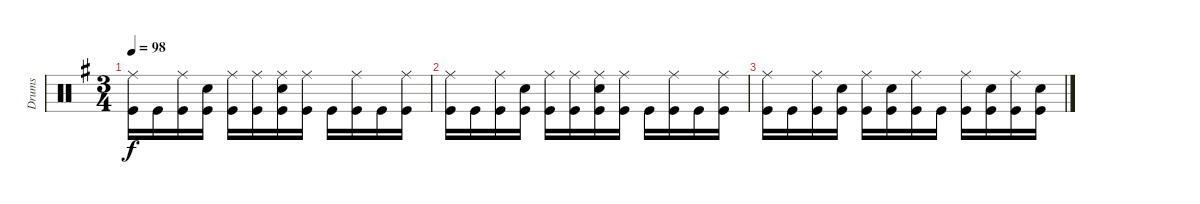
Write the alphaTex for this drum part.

\track ("Drums" "Drums") {instrument percussion}
\staff {score}
\articulation defaults
\ts (3 4)
\tempo 98
\clef neutral
\ks eminor
("Ride (middle)" "Kick (hit)").16{dy f} "Kick (hit)".16 ("Ride (middle)" "Kick (hit)").16 ("Electric Snare (hit)" "Kick (hit)").16 ("Ride (middle)" "Kick (hit)").16 ("Ride (middle)" "Kick (hit)").16 ("Ride (middle)" "Electric Snare (hit)" "Kick (hit)").16 ("Ride (middle)" "Kick (hit)").16 "Kick (hit)".16 ("Ride (middle)" "Kick (hit)").16 "Kick (hit)".16 ("Ride (middle)" "Kick (hit)").16 |
("Ride (middle)" "Kick (hit)").16 "Kick (hit)".16 ("Ride (middle)" "Kick (hit)").16 ("Electric Snare (hit)" "Kick (hit)").16 ("Ride (middle)" "Kick (hit)").16 ("Ride (middle)" "Kick (hit)").16 ("Ride (middle)" "Electric Snare (hit)" "Kick (hit)").16 ("Ride (middle)" "Kick (hit)").16 "Kick (hit)".16 ("Ride (middle)" "Kick (hit)").16 "Kick (hit)".16 ("Ride (middle)" "Kick (hit)").16 |
("Ride (middle)" "Kick (hit)").16 "Kick (hit)".16 ("Ride (middle)" "Kick (hit)").16 ("Electric Snare (hit)" "Kick (hit)").16 ("Ride (middle)" "Kick (hit)").16 ("Electric Snare (hit)" "Kick (hit)").16 ("Ride (middle)" "Kick (hit)").16 "Kick (hit)".16 ("Ride (middle)" "Kick (hit)").16 ("Electric Snare (hit)" "Kick (hit)").16 ("Ride (middle)" "Kick (hit)").16 ("Electric Snare (hit)" "Kick (hit)").16
